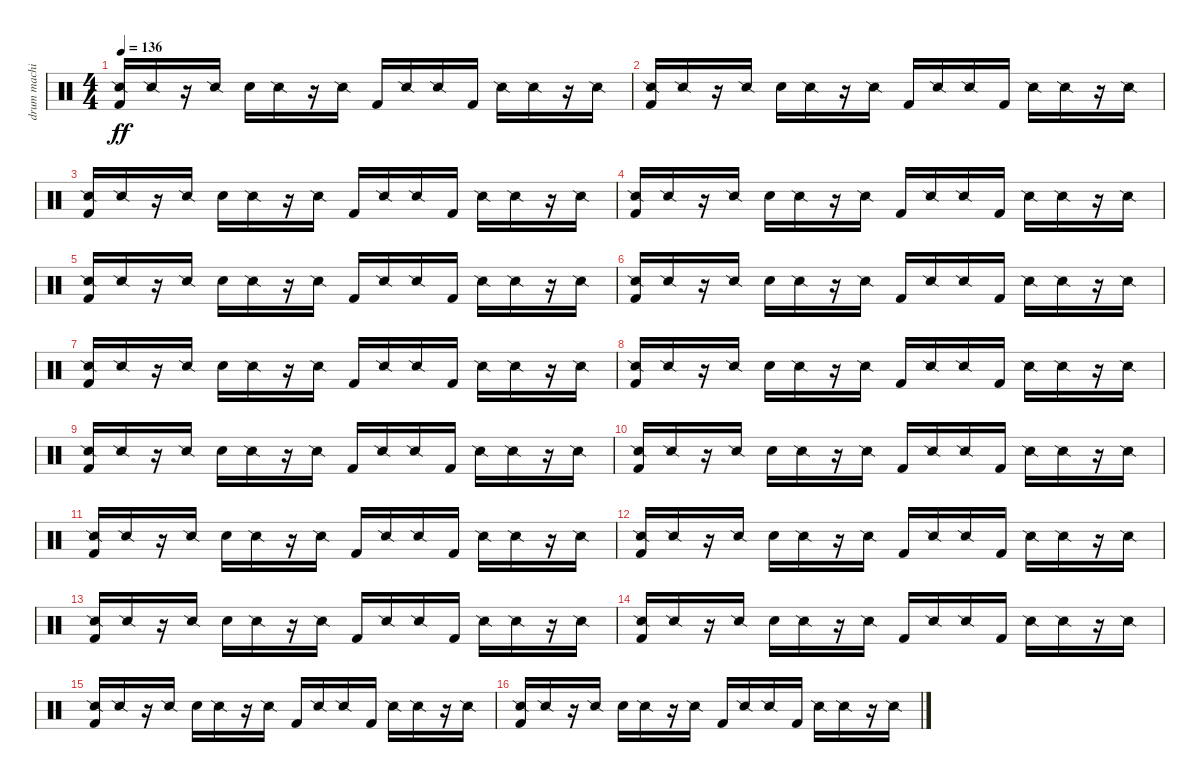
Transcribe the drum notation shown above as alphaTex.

\track ("drum machine" "drum machi") {instrument percussion}
\staff {score}
\articulation defaults
\ts (4 4)
\tempo 136
\clef neutral
\ks c
("Snare (side stick) 2" "Kick (hit) 2").16{dy ff} "Snare (side stick) 2".16 r.16 "Snare (side stick) 2".16 "Electric Snare (hit)".16 "Snare (side stick) 2".16 r.16 "Snare (side stick) 2".16 "Kick (hit) 2".16 "Snare (side stick) 2".16 "Snare (side stick) 2".16 "Kick (hit) 2".16 "Snare (side stick) 2".16 "Snare (side stick) 2".16 r.16 "Snare (side stick) 2".16 |
("Snare (side stick) 2" "Kick (hit) 2").16 "Snare (side stick) 2".16 r.16 "Snare (side stick) 2".16 "Electric Snare (hit)".16 "Snare (side stick) 2".16 r.16 "Snare (side stick) 2".16 "Kick (hit) 2".16 "Snare (side stick) 2".16 "Snare (side stick) 2".16 "Kick (hit) 2".16 "Snare (side stick) 2".16 "Snare (side stick) 2".16 r.16 "Snare (side stick) 2".16 |
("Snare (side stick) 2" "Kick (hit) 2").16 "Snare (side stick) 2".16 r.16 "Snare (side stick) 2".16 "Electric Snare (hit)".16 "Snare (side stick) 2".16 r.16 "Snare (side stick) 2".16 "Kick (hit) 2".16 "Snare (side stick) 2".16 "Snare (side stick) 2".16 "Kick (hit) 2".16 "Snare (side stick) 2".16 "Snare (side stick) 2".16 r.16 "Snare (side stick) 2".16 |
("Snare (side stick) 2" "Kick (hit) 2").16 "Snare (side stick) 2".16 r.16 "Snare (side stick) 2".16 "Electric Snare (hit)".16 "Snare (side stick) 2".16 r.16 "Snare (side stick) 2".16 "Kick (hit) 2".16 "Snare (side stick) 2".16 "Snare (side stick) 2".16 "Kick (hit) 2".16 "Snare (side stick) 2".16 "Snare (side stick) 2".16 r.16 "Snare (side stick) 2".16 |
("Snare (side stick) 2" "Kick (hit) 2").16 "Snare (side stick) 2".16 r.16 "Snare (side stick) 2".16 "Electric Snare (hit)".16 "Snare (side stick) 2".16 r.16 "Snare (side stick) 2".16 "Kick (hit) 2".16 "Snare (side stick) 2".16 "Snare (side stick) 2".16 "Kick (hit) 2".16 "Snare (side stick) 2".16 "Snare (side stick) 2".16 r.16 "Snare (side stick) 2".16 |
("Snare (side stick) 2" "Kick (hit) 2").16 "Snare (side stick) 2".16 r.16 "Snare (side stick) 2".16 "Electric Snare (hit)".16 "Snare (side stick) 2".16 r.16 "Snare (side stick) 2".16 "Kick (hit) 2".16 "Snare (side stick) 2".16 "Snare (side stick) 2".16 "Kick (hit) 2".16 "Snare (side stick) 2".16 "Snare (side stick) 2".16 r.16 "Snare (side stick) 2".16 |
("Snare (side stick) 2" "Kick (hit) 2").16 "Snare (side stick) 2".16 r.16 "Snare (side stick) 2".16 "Electric Snare (hit)".16 "Snare (side stick) 2".16 r.16 "Snare (side stick) 2".16 "Kick (hit) 2".16 "Snare (side stick) 2".16 "Snare (side stick) 2".16 "Kick (hit) 2".16 "Snare (side stick) 2".16 "Snare (side stick) 2".16 r.16 "Snare (side stick) 2".16 |
("Snare (side stick) 2" "Kick (hit) 2").16 "Snare (side stick) 2".16 r.16 "Snare (side stick) 2".16 "Electric Snare (hit)".16 "Snare (side stick) 2".16 r.16 "Snare (side stick) 2".16 "Kick (hit) 2".16 "Snare (side stick) 2".16 "Snare (side stick) 2".16 "Kick (hit) 2".16 "Snare (side stick) 2".16 "Snare (side stick) 2".16 r.16 "Snare (side stick) 2".16 |
("Snare (side stick) 2" "Kick (hit) 2").16 "Snare (side stick) 2".16 r.16 "Snare (side stick) 2".16 "Electric Snare (hit)".16 "Snare (side stick) 2".16 r.16 "Snare (side stick) 2".16 "Kick (hit) 2".16 "Snare (side stick) 2".16 "Snare (side stick) 2".16 "Kick (hit) 2".16 "Snare (side stick) 2".16 "Snare (side stick) 2".16 r.16 "Snare (side stick) 2".16 |
("Snare (side stick) 2" "Kick (hit) 2").16 "Snare (side stick) 2".16 r.16 "Snare (side stick) 2".16 "Electric Snare (hit)".16 "Snare (side stick) 2".16 r.16 "Snare (side stick) 2".16 "Kick (hit) 2".16 "Snare (side stick) 2".16 "Snare (side stick) 2".16 "Kick (hit) 2".16 "Snare (side stick) 2".16 "Snare (side stick) 2".16 r.16 "Snare (side stick) 2".16 |
("Snare (side stick) 2" "Kick (hit) 2").16 "Snare (side stick) 2".16 r.16 "Snare (side stick) 2".16 "Electric Snare (hit)".16 "Snare (side stick) 2".16 r.16 "Snare (side stick) 2".16 "Kick (hit) 2".16 "Snare (side stick) 2".16 "Snare (side stick) 2".16 "Kick (hit) 2".16 "Snare (side stick) 2".16 "Snare (side stick) 2".16 r.16 "Snare (side stick) 2".16 |
("Snare (side stick) 2" "Kick (hit) 2").16 "Snare (side stick) 2".16 r.16 "Snare (side stick) 2".16 "Electric Snare (hit)".16 "Snare (side stick) 2".16 r.16 "Snare (side stick) 2".16 "Kick (hit) 2".16 "Snare (side stick) 2".16 "Snare (side stick) 2".16 "Kick (hit) 2".16 "Snare (side stick) 2".16 "Snare (side stick) 2".16 r.16 "Snare (side stick) 2".16 |
("Snare (side stick) 2" "Kick (hit) 2").16 "Snare (side stick) 2".16 r.16 "Snare (side stick) 2".16 "Electric Snare (hit)".16 "Snare (side stick) 2".16 r.16 "Snare (side stick) 2".16 "Kick (hit) 2".16 "Snare (side stick) 2".16 "Snare (side stick) 2".16 "Kick (hit) 2".16 "Snare (side stick) 2".16 "Snare (side stick) 2".16 r.16 "Snare (side stick) 2".16 |
("Snare (side stick) 2" "Kick (hit) 2").16 "Snare (side stick) 2".16 r.16 "Snare (side stick) 2".16 "Electric Snare (hit)".16 "Snare (side stick) 2".16 r.16 "Snare (side stick) 2".16 "Kick (hit) 2".16 "Snare (side stick) 2".16 "Snare (side stick) 2".16 "Kick (hit) 2".16 "Snare (side stick) 2".16 "Snare (side stick) 2".16 r.16 "Snare (side stick) 2".16 |
("Snare (side stick) 2" "Kick (hit) 2").16 "Snare (side stick) 2".16 r.16 "Snare (side stick) 2".16 "Electric Snare (hit)".16 "Snare (side stick) 2".16 r.16 "Snare (side stick) 2".16 "Kick (hit) 2".16 "Snare (side stick) 2".16 "Snare (side stick) 2".16 "Kick (hit) 2".16 "Snare (side stick) 2".16 "Snare (side stick) 2".16 r.16 "Snare (side stick) 2".16 |
("Snare (side stick) 2" "Kick (hit) 2").16 "Snare (side stick) 2".16 r.16 "Snare (side stick) 2".16 "Electric Snare (hit)".16 "Snare (side stick) 2".16 r.16 "Snare (side stick) 2".16 "Kick (hit) 2".16 "Snare (side stick) 2".16 "Snare (side stick) 2".16 "Kick (hit) 2".16 "Snare (side stick) 2".16 "Snare (side stick) 2".16 r.16 "Snare (side stick) 2".16
